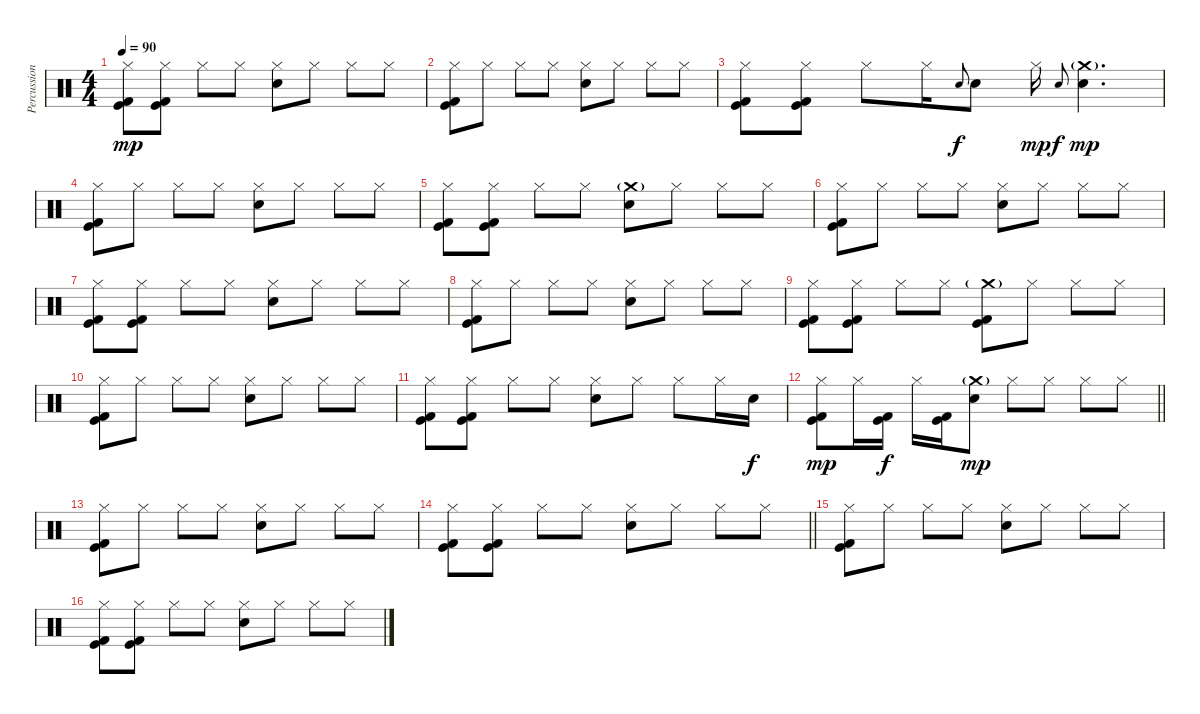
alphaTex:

\track ("Percussion" "Percussion") {instrument percussion}
\staff {score}
\articulation defaults
\ts (4 4)
\tempo 90
\clef neutral
\ks c
("Hi-Hat (closed)" "Kick (hit)" "Kick (hit) 2").8{dy mp} ("Hi-Hat (closed)" "Kick (hit)" "Kick (hit) 2").8 "Hi-Hat (closed)".8 "Hi-Hat (closed)".8 ("Hi-Hat (closed)" "Electric Snare (hit)").8 "Hi-Hat (closed)".8 "Hi-Hat (closed)".8 "Hi-Hat (closed)".8 |
("Hi-Hat (closed)" "Kick (hit)" "Kick (hit) 2").8 "Hi-Hat (closed)".8 "Hi-Hat (closed)".8 "Hi-Hat (closed)".8 ("Hi-Hat (closed)" "Electric Snare (hit)").8 "Hi-Hat (closed)".8 "Hi-Hat (closed)".8 "Hi-Hat (closed)".8 |
("Hi-Hat (closed)" "Kick (hit)" "Kick (hit) 2").8 ("Hi-Hat (closed)" "Kick (hit)" "Kick (hit) 2").8 "Hi-Hat (closed)".8 "Hi-Hat (closed)".16 "Electric Snare (hit)".8{gr onbeat dy f} "Electric Snare (hit)".8 "Hi-Hat (closed)".16{dy mp} "Electric Snare (hit)".8{gr onbeat dy f} ("Crash medium (hit)"{g} "Electric Snare (hit)").4{d dy mp} |
("Hi-Hat (closed)" "Kick (hit)" "Kick (hit) 2").8 "Hi-Hat (closed)".8 "Hi-Hat (closed)".8 "Hi-Hat (closed)".8 ("Hi-Hat (closed)" "Electric Snare (hit)").8 "Hi-Hat (closed)".8 "Hi-Hat (closed)".8 "Hi-Hat (closed)".8 |
("Hi-Hat (closed)" "Kick (hit)" "Kick (hit) 2").8 ("Hi-Hat (closed)" "Kick (hit)" "Kick (hit) 2").8 "Hi-Hat (closed)".8 "Hi-Hat (closed)".8 ("Crash medium (hit)"{g} "Electric Snare (hit)").8 "Hi-Hat (closed)".8 "Hi-Hat (closed)".8 "Hi-Hat (closed)".8 |
("Hi-Hat (closed)" "Kick (hit)" "Kick (hit) 2").8 "Hi-Hat (closed)".8 "Hi-Hat (closed)".8 "Hi-Hat (closed)".8 ("Hi-Hat (closed)" "Electric Snare (hit)").8 "Hi-Hat (closed)".8 "Hi-Hat (closed)".8 "Hi-Hat (closed)".8 |
("Hi-Hat (closed)" "Kick (hit)" "Kick (hit) 2").8 ("Hi-Hat (closed)" "Kick (hit)" "Kick (hit) 2").8 "Hi-Hat (closed)".8 "Hi-Hat (closed)".8 ("Hi-Hat (closed)" "Electric Snare (hit)").8 "Hi-Hat (closed)".8 "Hi-Hat (closed)".8 "Hi-Hat (closed)".8 |
("Hi-Hat (closed)" "Kick (hit)" "Kick (hit) 2").8 "Hi-Hat (closed)".8 "Hi-Hat (closed)".8 "Hi-Hat (closed)".8 ("Hi-Hat (closed)" "Electric Snare (hit)").8 "Hi-Hat (closed)".8 "Hi-Hat (closed)".8 "Hi-Hat (closed)".8 |
("Hi-Hat (closed)" "Kick (hit)" "Kick (hit) 2").8 ("Hi-Hat (closed)" "Kick (hit)" "Kick (hit) 2").8 "Hi-Hat (closed)".8 "Hi-Hat (closed)".8 ("Crash medium (hit)"{g} "Kick (hit)" "Kick (hit) 2").8 "Hi-Hat (closed)".8 "Hi-Hat (closed)".8 "Hi-Hat (closed)".8 |
("Hi-Hat (closed)" "Kick (hit)" "Kick (hit) 2").8 "Hi-Hat (closed)".8 "Hi-Hat (closed)".8 "Hi-Hat (closed)".8 ("Hi-Hat (closed)" "Electric Snare (hit)").8 "Hi-Hat (closed)".8 "Hi-Hat (closed)".8 "Hi-Hat (closed)".8 |
("Hi-Hat (closed)" "Kick (hit)" "Kick (hit) 2").8 ("Hi-Hat (closed)" "Kick (hit)" "Kick (hit) 2").8 "Hi-Hat (closed)".8 "Hi-Hat (closed)".8 ("Hi-Hat (closed)" "Electric Snare (hit)").8 "Hi-Hat (closed)".8 "Hi-Hat (closed)".8 "Hi-Hat (closed)".16 "Electric Snare (hit)".16{dy f} |
\barLineRight lightlight
("Hi-Hat (closed)" "Kick (hit)" "Kick (hit) 2").8{dy mp} "Hi-Hat (closed)".16 ("Kick (hit)" "Kick (hit) 2").16{dy f} "Hi-Hat (closed)".16 ("Kick (hit)" "Kick (hit) 2").16 ("Crash medium (hit)"{g} "Electric Snare (hit)").8{dy mp} "Hi-Hat (closed)".8 "Hi-Hat (closed)".8 "Hi-Hat (closed)".8 "Hi-Hat (closed)".8 |
("Hi-Hat (closed)" "Kick (hit)" "Kick (hit) 2").8 "Hi-Hat (closed)".8 "Hi-Hat (closed)".8 "Hi-Hat (closed)".8 ("Hi-Hat (closed)" "Electric Snare (hit)").8 "Hi-Hat (closed)".8 "Hi-Hat (closed)".8 "Hi-Hat (closed)".8 |
\barLineRight lightlight
("Hi-Hat (closed)" "Kick (hit)" "Kick (hit) 2").8 ("Hi-Hat (closed)" "Kick (hit)" "Kick (hit) 2").8 "Hi-Hat (closed)".8 "Hi-Hat (closed)".8 ("Hi-Hat (closed)" "Electric Snare (hit)").8 "Hi-Hat (closed)".8 "Hi-Hat (closed)".8 "Hi-Hat (closed)".8 |
\section ("" "")
("Hi-Hat (closed)" "Kick (hit)" "Kick (hit) 2").8{volume 12} "Hi-Hat (closed)".8 "Hi-Hat (closed)".8 "Hi-Hat (closed)".8 ("Hi-Hat (closed)" "Electric Snare (hit)").8 "Hi-Hat (closed)".8 "Hi-Hat (closed)".8 "Hi-Hat (closed)".8 |
("Hi-Hat (closed)" "Kick (hit)" "Kick (hit) 2").8 ("Hi-Hat (closed)" "Kick (hit)" "Kick (hit) 2").8 "Hi-Hat (closed)".8 "Hi-Hat (closed)".8 ("Hi-Hat (closed)" "Electric Snare (hit)").8 "Hi-Hat (closed)".8 "Hi-Hat (closed)".8 "Hi-Hat (closed)".8
